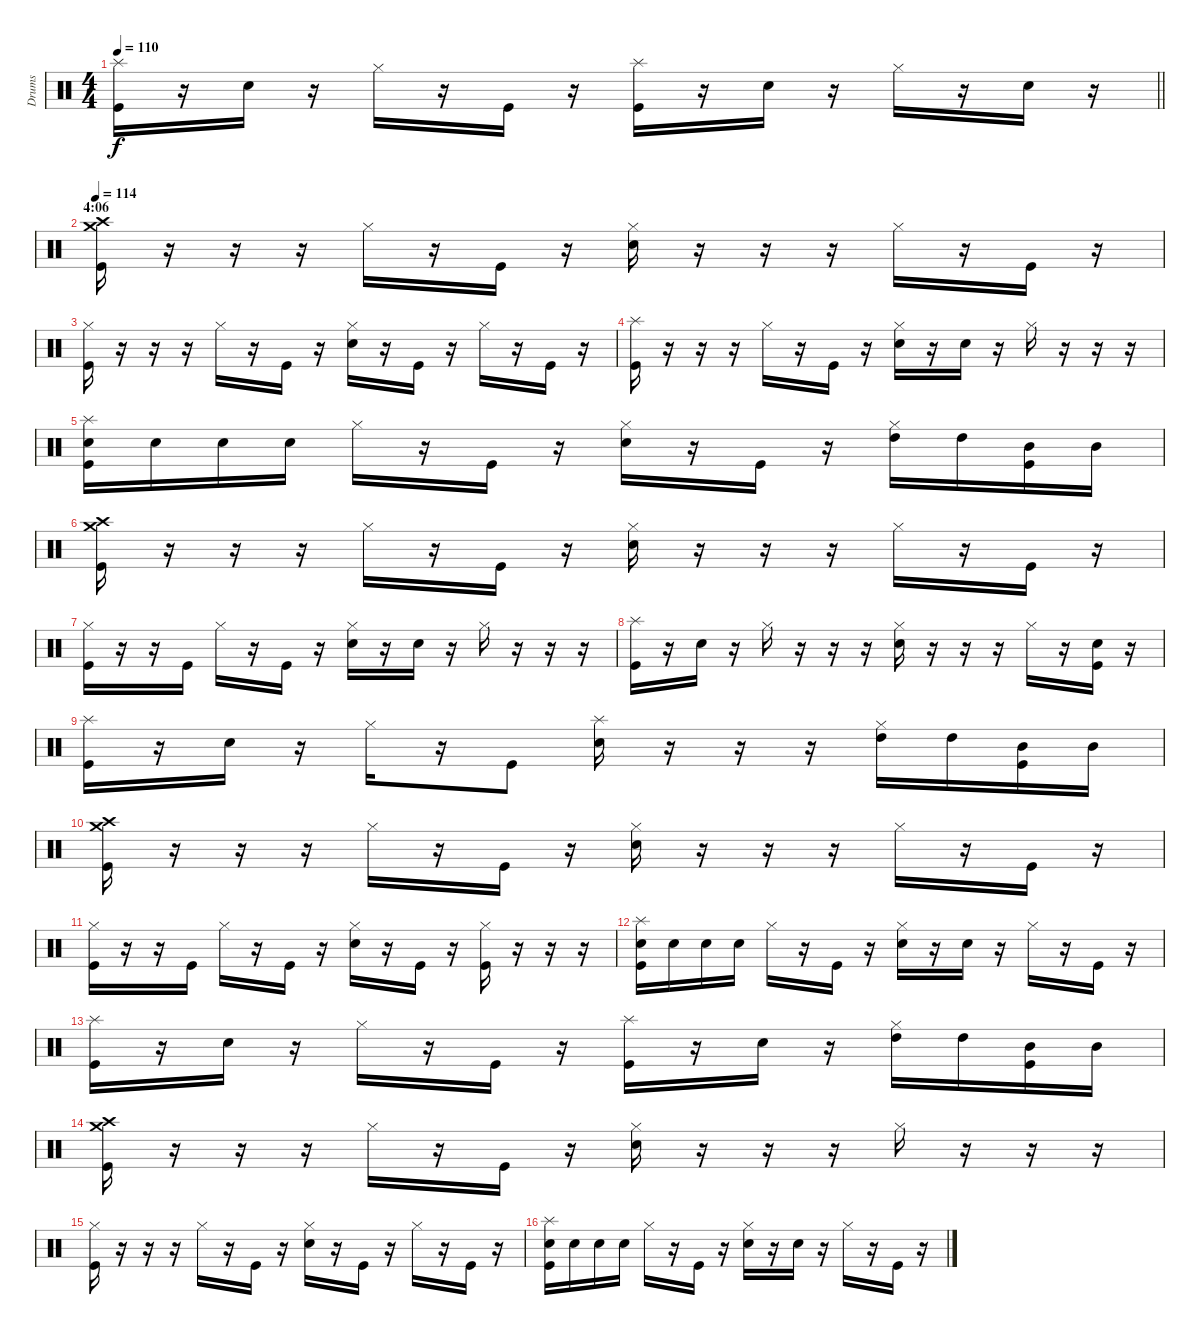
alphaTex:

\track ("Drums" "Drums") {instrument percussion}
\staff {score}
\articulation defaults
\ts (4 4)
\tempo 110
\clef neutral
\barLineRight lightlight
\ks c
("Splash (hit)" "Kick (hit)").16{dy f} r.16 "Snare (hit) 2".16 r.16 "Hi-Hat (closed)".16 r.16 "Kick (hit)".16 r.16 ("Splash (hit)" "Kick (hit)").16 r.16 "Snare (hit) 2".16 r.16 "Hi-Hat (closed)".16 r.16 "Snare (hit) 2".16 r.16 |
\section ("" "4:06")
\tempo 114
("Crash high (hit)" "Crash medium (hit)" "Kick (hit)").16 r.16 r.16 r.16 "Hi-Hat (closed)".16 r.16 "Kick (hit)".16 r.16 ("Hi-Hat (closed)" "Snare (hit) 2").16 r.16 r.16 r.16 "Hi-Hat (closed)".16 r.16 "Kick (hit)".16 r.16 |
("Hi-Hat (closed)" "Kick (hit)").16 r.16 r.16 r.16 "Hi-Hat (closed)".16 r.16 "Kick (hit)".16 r.16 ("Hi-Hat (closed)" "Snare (hit) 2").16 r.16 "Kick (hit)".16 r.16 "Hi-Hat (closed)".16 r.16 "Kick (hit)".16 r.16 |
("Splash (hit)" "Kick (hit)").16 r.16 r.16 r.16 "Hi-Hat (closed)".16 r.16 "Kick (hit)".16 r.16 ("Hi-Hat (closed)" "Snare (hit) 2").16 r.16 "Snare (hit) 2".16 r.16 "Hi-Hat (closed)".16 r.16 r.16 r.16 |
("Splash (hit)" "Snare (hit) 2" "Kick (hit)").16 "Snare (hit) 2".16 "Snare (hit) 2".16 "Snare (hit) 2".16 "Hi-Hat (closed)".16 r.16 "Kick (hit)".16 r.16 ("Hi-Hat (closed)" "Snare (hit) 2").16 r.16 "Kick (hit)".16 r.16 ("Hi-Hat (closed)" "High Tom (hit)").16 "High Tom (hit)".16 ("Mid Tom (hit)" "Kick (hit)").16 "Mid Tom (hit)".16 |
("Crash high (hit)" "Crash medium (hit)" "Kick (hit)").16 r.16 r.16 r.16 "Hi-Hat (closed)".16 r.16 "Kick (hit)".16 r.16 ("Hi-Hat (closed)" "Snare (hit) 2").16 r.16 r.16 r.16 "Hi-Hat (closed)".16 r.16 "Kick (hit)".16 r.16 |
("Hi-Hat (closed)" "Kick (hit)").16 r.16 r.16 "Kick (hit)".16 "Hi-Hat (closed)".16 r.16 "Kick (hit)".16 r.16 ("Hi-Hat (closed)" "Snare (hit) 2").16 r.16 "Snare (hit) 2".16 r.16 "Hi-Hat (closed)".16 r.16 r.16 r.16 |
("Splash (hit)" "Kick (hit)").16 r.16 "Snare (hit) 2".16 r.16 "Hi-Hat (closed)".16 r.16 r.16 r.16 ("Hi-Hat (closed)" "Snare (hit) 2").16 r.16 r.16 r.16 "Hi-Hat (closed)".16 r.16 ("Snare (hit) 2" "Kick (hit)").16 r.16 |
("Splash (hit)" "Kick (hit)").16 r.16 "Snare (hit) 2".16 r.16 "Hi-Hat (closed)".16 r.16 "Kick (hit)".8 ("Splash (hit)" "Snare (hit) 2").16 r.16 r.16 r.16 ("Hi-Hat (closed)" "High Tom (hit)").16 "High Tom (hit)".16 ("Mid Tom (hit)" "Kick (hit)").16 "Mid Tom (hit)".16 |
("Crash high (hit)" "Crash medium (hit)" "Kick (hit)").16 r.16 r.16 r.16 "Hi-Hat (closed)".16 r.16 "Kick (hit)".16 r.16 ("Hi-Hat (closed)" "Snare (hit) 2").16 r.16 r.16 r.16 "Hi-Hat (closed)".16 r.16 "Kick (hit)".16 r.16 |
("Hi-Hat (closed)" "Kick (hit)").16 r.16 r.16 "Kick (hit)".16 "Hi-Hat (closed)".16 r.16 "Kick (hit)".16 r.16 ("Hi-Hat (closed)" "Snare (hit) 2").16 r.16 "Kick (hit)".16 r.16 ("Hi-Hat (closed)" "Kick (hit)").16 r.16 r.16 r.16 |
("Splash (hit)" "Snare (hit) 2" "Kick (hit)").16 "Snare (hit) 2".16 "Snare (hit) 2".16 "Snare (hit) 2".16 "Hi-Hat (closed)".16 r.16 "Kick (hit)".16 r.16 ("Hi-Hat (closed)" "Snare (hit) 2").16 r.16 "Snare (hit) 2".16 r.16 "Hi-Hat (closed)".16 r.16 "Kick (hit)".16 r.16 |
("Splash (hit)" "Kick (hit)").16 r.16 "Snare (hit) 2".16 r.16 "Hi-Hat (closed)".16 r.16 "Kick (hit)".16 r.16 ("Splash (hit)" "Kick (hit)").16 r.16 "Snare (hit) 2".16 r.16 ("Hi-Hat (closed)" "High Tom (hit)").16 "High Tom (hit)".16 ("Mid Tom (hit)" "Kick (hit)").16 "Mid Tom (hit)".16 |
("Crash high (hit)" "Crash medium (hit)" "Kick (hit)").16 r.16 r.16 r.16 "Hi-Hat (closed)".16 r.16 "Kick (hit)".16 r.16 ("Hi-Hat (closed)" "Snare (hit) 2").16 r.16 r.16 r.16 "Hi-Hat (closed)".16 r.16 r.16 r.16 |
("Hi-Hat (closed)" "Kick (hit)").16 r.16 r.16 r.16 "Hi-Hat (closed)".16 r.16 "Kick (hit)".16 r.16 ("Hi-Hat (closed)" "Snare (hit) 2").16 r.16 "Kick (hit)".16 r.16 "Hi-Hat (closed)".16 r.16 "Kick (hit)".16 r.16 |
("Splash (hit)" "Snare (hit) 2" "Kick (hit)").16 "Snare (hit) 2".16 "Snare (hit) 2".16 "Snare (hit) 2".16 "Hi-Hat (closed)".16 r.16 "Kick (hit)".16 r.16 ("Hi-Hat (closed)" "Snare (hit) 2").16 r.16 "Snare (hit) 2".16 r.16 "Hi-Hat (closed)".16 r.16 "Kick (hit)".16 r.16
